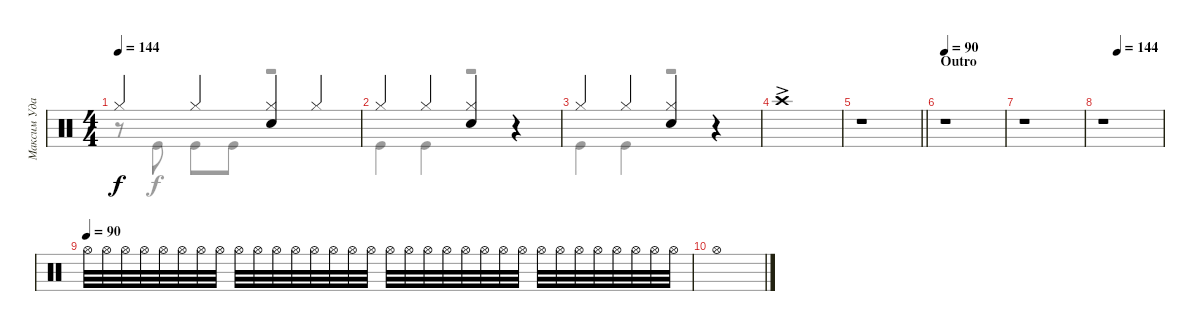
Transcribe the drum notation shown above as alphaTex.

\track ("Максим Удалов" "Максим Уда") {instrument percussion}
\staff {score}
\articulation defaults
\voice
\ts (4 4)
\tempo 144
\clef neutral
\ks c "Hi-Hat (closed)".4{dy f} "Hi-Hat (closed)".4
("Hi-Hat (closed)" "Snare (hit) 2").4 "Hi-Hat (closed)".4 |
"Hi-Hat (closed)".4 "Hi-Hat (closed)".4 ("Hi-Hat (closed)" "Snare (hit) 2").4 r.4 |
"Hi-Hat (closed)".4 "Hi-Hat (closed)".4 ("Hi-Hat (closed)" "Snare (hit) 2").4 r.4 |
"Crash high (hit)"{ac}.1 |
\barLineRight lightlight
r.1 |
\section ("" "Outro")
\tempo 90
r.1 |
r.1 |
\tempo (144 0.25)
r.1 |
\tempo (90)
"Hi-Hat (open)".32{volume 12} "Hi-Hat (open)".32 "Hi-Hat (open)".32 "Hi-Hat (open)".32 "Hi-Hat (open)".32 "Hi-Hat (open)".32 "Hi-Hat (open)".32 "Hi-Hat (open)".32 "Hi-Hat (open)".32 "Hi-Hat (open)".32 "Hi-Hat (open)".32 "Hi-Hat (open)".32 "Hi-Hat (open)".32 "Hi-Hat (open)".32 "Hi-Hat (open)".32 "Hi-Hat (open)".32 "Hi-Hat (open)".32 "Hi-Hat (open)".32 "Hi-Hat (open)".32 "Hi-Hat (open)".32 "Hi-Hat (open)".32 "Hi-Hat (open)".32 "Hi-Hat (open)".32 "Hi-Hat (open)".32 "Hi-Hat (open)".32 "Hi-Hat (open)".32 "Hi-Hat (open)".32 "Hi-Hat (open)".32 "Hi-Hat (open)".32 "Hi-Hat (open)".32 "Hi-Hat (open)".32 "Hi-Hat (open)".32 |
"Hi-Hat (open)".1
\voice
\clef neutral
\ottava regular
\simile none
\ks c
r.8{dy f} "Kick (hit)".8 "Kick (hit)".8 "Kick (hit)".8 r.2 |
"Kick (hit)".4 "Kick (hit)".4 r.2 |
"Kick (hit)".4 "Kick (hit)".4 r.2 |
|
\barLineRight lightlight
|
|
|
|
|
